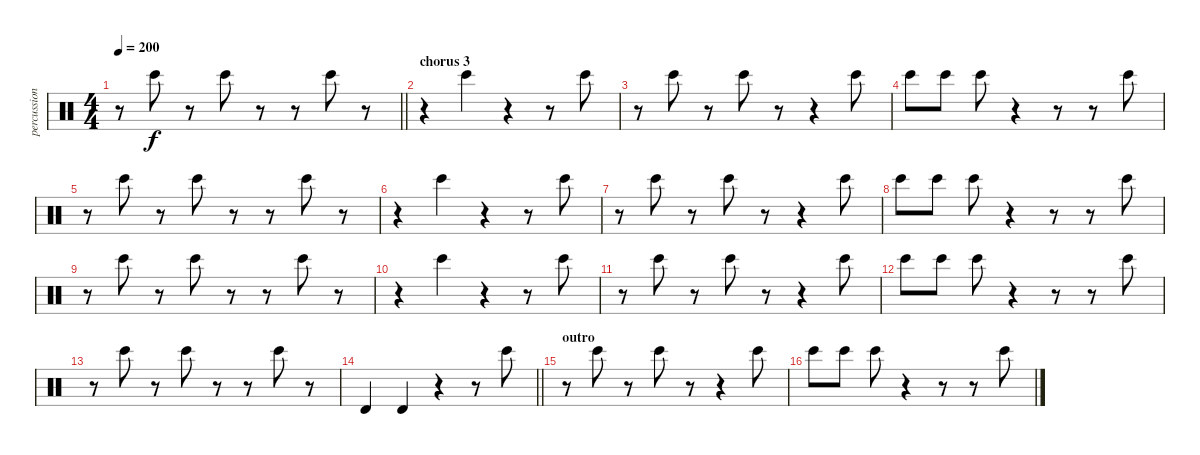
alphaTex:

\track ("percussion" "percussion") {instrument percussion}
\staff {score}
\articulation defaults
\ts (4 4)
\tempo 200
\clef neutral
\barLineRight lightlight
\ks c
r.8{dy f} "Bongo High (hit)".8 r.8 "Bongo High (hit)".8 r.8 r.8 "Bongo High (hit)".8 r.8 |
\section ("" "chorus 3")
r.4 "Bongo High (hit)".4 r.4 r.8 "Bongo High (hit)".8 |
r.8 "Bongo High (hit)".8 r.8 "Bongo High (hit)".8 r.8 r.4 "Bongo High (hit)".8 |
"Bongo High (hit)".8 "Bongo High (hit)".8 "Bongo High (hit)".8 r.4 r.8 r.8 "Bongo High (hit)".8 |
r.8 "Bongo High (hit)".8 r.8 "Bongo High (hit)".8 r.8 r.8 "Bongo High (hit)".8 r.8 |
r.4 "Bongo High (hit)".4 r.4 r.8 "Bongo High (hit)".8 |
r.8 "Bongo High (hit)".8 r.8 "Bongo High (hit)".8 r.8 r.4 "Bongo High (hit)".8 |
"Bongo High (hit)".8 "Bongo High (hit)".8 "Bongo High (hit)".8 r.4 r.8 r.8 "Bongo High (hit)".8 |
r.8 "Bongo High (hit)".8 r.8 "Bongo High (hit)".8 r.8 r.8 "Bongo High (hit)".8 r.8 |
r.4 "Bongo High (hit)".4 r.4 r.8 "Bongo High (hit)".8 |
r.8 "Bongo High (hit)".8 r.8 "Bongo High (hit)".8 r.8 r.4 "Bongo High (hit)".8 |
"Bongo High (hit)".8 "Bongo High (hit)".8 "Bongo High (hit)".8 r.4 r.8 r.8 "Bongo High (hit)".8 |
r.8 "Bongo High (hit)".8 r.8 "Bongo High (hit)".8 r.8 r.8 "Bongo High (hit)".8 r.8 |
\barLineRight lightlight "Timbale high (hit)".4{volume 16} "Timbale high (hit)".4
r.4{volume 13} r.8 "Bongo High (hit)".8 |
\section ("" "outro")
r.8 "Bongo High (hit)".8 r.8 "Bongo High (hit)".8 r.8 r.4 "Bongo High (hit)".8 |
"Bongo High (hit)".8 "Bongo High (hit)".8 "Bongo High (hit)".8 r.4 r.8 r.8 "Bongo High (hit)".8
